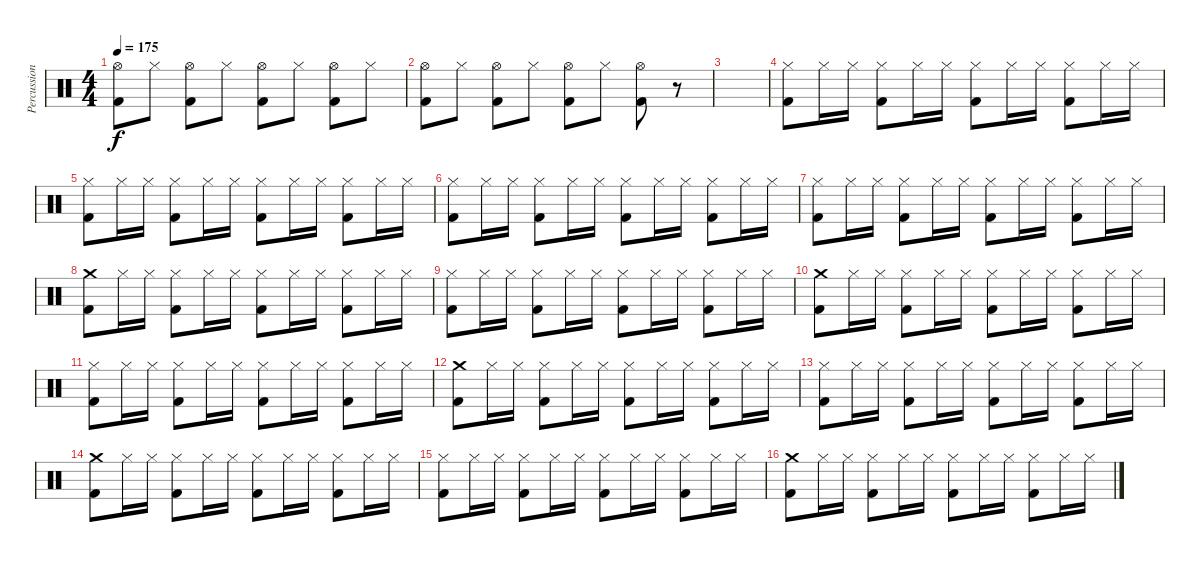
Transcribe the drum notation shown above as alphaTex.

\track ("Percussions" "Percussion") {instrument percussion}
\staff {score}
\articulation defaults
\ts (4 4)
\tempo 175
\clef neutral
\ks c
("Hi-Hat (open)" "Kick (hit) 2").8{dy f} "Hi-Hat (closed)".8 ("Hi-Hat (open)" "Kick (hit) 2").8 "Hi-Hat (closed)".8 ("Hi-Hat (open)" "Kick (hit) 2").8 "Hi-Hat (closed)".8 ("Hi-Hat (open)" "Kick (hit) 2").8 "Hi-Hat (closed)".8 |
("Hi-Hat (open)" "Kick (hit) 2").8 "Hi-Hat (closed)".8 ("Hi-Hat (open)" "Kick (hit) 2").8 "Hi-Hat (closed)".8 ("Hi-Hat (open)" "Kick (hit) 2").8 "Hi-Hat (closed)".8 ("Hi-Hat (open)" "Kick (hit) 2").8 r.8 |
|
("Hi-Hat (closed)" "Kick (hit) 2").8 "Hi-Hat (closed)".16 "Hi-Hat (closed)".16 ("Hi-Hat (closed)" "Kick (hit) 2").8 "Hi-Hat (closed)".16 "Hi-Hat (closed)".16 ("Hi-Hat (closed)" "Kick (hit) 2").8 "Hi-Hat (closed)".16 "Hi-Hat (closed)".16 ("Hi-Hat (closed)" "Kick (hit) 2").8 "Hi-Hat (closed)".16 "Hi-Hat (closed)".16 |
("Hi-Hat (closed)" "Kick (hit) 2").8 "Hi-Hat (closed)".16 "Hi-Hat (closed)".16 ("Hi-Hat (closed)" "Kick (hit) 2").8 "Hi-Hat (closed)".16 "Hi-Hat (closed)".16 ("Hi-Hat (closed)" "Kick (hit) 2").8 "Hi-Hat (closed)".16 "Hi-Hat (closed)".16 ("Hi-Hat (closed)" "Kick (hit) 2").8 "Hi-Hat (closed)".16 "Hi-Hat (closed)".16 |
("Hi-Hat (closed)" "Kick (hit) 2").8 "Hi-Hat (closed)".16 "Hi-Hat (closed)".16 ("Hi-Hat (closed)" "Kick (hit) 2").8 "Hi-Hat (closed)".16 "Hi-Hat (closed)".16 ("Hi-Hat (closed)" "Kick (hit) 2").8 "Hi-Hat (closed)".16 "Hi-Hat (closed)".16 ("Hi-Hat (closed)" "Kick (hit) 2").8 "Hi-Hat (closed)".16 "Hi-Hat (closed)".16 |
("Hi-Hat (closed)" "Kick (hit) 2").8 "Hi-Hat (closed)".16 "Hi-Hat (closed)".16 ("Hi-Hat (closed)" "Kick (hit) 2").8 "Hi-Hat (closed)".16 "Hi-Hat (closed)".16 ("Hi-Hat (closed)" "Kick (hit) 2").8 "Hi-Hat (closed)".16 "Hi-Hat (closed)".16 ("Hi-Hat (closed)" "Kick (hit) 2").8 "Hi-Hat (closed)".16 "Hi-Hat (closed)".16 |
("Crash medium (hit)" "Kick (hit) 2").8 "Hi-Hat (closed)".16 "Hi-Hat (closed)".16 ("Hi-Hat (closed)" "Kick (hit) 2").8 "Hi-Hat (closed)".16 "Hi-Hat (closed)".16 ("Hi-Hat (closed)" "Kick (hit) 2").8 "Hi-Hat (closed)".16 "Hi-Hat (closed)".16 ("Hi-Hat (closed)" "Kick (hit) 2").8 "Hi-Hat (closed)".16 "Hi-Hat (closed)".16 |
("Hi-Hat (closed)" "Kick (hit) 2").8 "Hi-Hat (closed)".16 "Hi-Hat (closed)".16 ("Hi-Hat (closed)" "Kick (hit) 2").8 "Hi-Hat (closed)".16 "Hi-Hat (closed)".16 ("Hi-Hat (closed)" "Kick (hit) 2").8 "Hi-Hat (closed)".16 "Hi-Hat (closed)".16 ("Hi-Hat (closed)" "Kick (hit) 2").8 "Hi-Hat (closed)".16 "Hi-Hat (closed)".16 |
("Crash medium (hit)" "Kick (hit) 2").8 "Hi-Hat (closed)".16 "Hi-Hat (closed)".16 ("Hi-Hat (closed)" "Kick (hit) 2").8 "Hi-Hat (closed)".16 "Hi-Hat (closed)".16 ("Hi-Hat (closed)" "Kick (hit) 2").8 "Hi-Hat (closed)".16 "Hi-Hat (closed)".16 ("Hi-Hat (closed)" "Kick (hit) 2").8 "Hi-Hat (closed)".16 "Hi-Hat (closed)".16 |
("Hi-Hat (closed)" "Kick (hit) 2").8 "Hi-Hat (closed)".16 "Hi-Hat (closed)".16 ("Hi-Hat (closed)" "Kick (hit) 2").8 "Hi-Hat (closed)".16 "Hi-Hat (closed)".16 ("Hi-Hat (closed)" "Kick (hit) 2").8 "Hi-Hat (closed)".16 "Hi-Hat (closed)".16 ("Hi-Hat (closed)" "Kick (hit) 2").8 "Hi-Hat (closed)".16 "Hi-Hat (closed)".16 |
("Crash medium (hit)" "Kick (hit) 2").8 "Hi-Hat (closed)".16 "Hi-Hat (closed)".16 ("Hi-Hat (closed)" "Kick (hit) 2").8 "Hi-Hat (closed)".16 "Hi-Hat (closed)".16 ("Hi-Hat (closed)" "Kick (hit) 2").8 "Hi-Hat (closed)".16 "Hi-Hat (closed)".16 ("Hi-Hat (closed)" "Kick (hit) 2").8 "Hi-Hat (closed)".16 "Hi-Hat (closed)".16 |
("Hi-Hat (closed)" "Kick (hit) 2").8 "Hi-Hat (closed)".16 "Hi-Hat (closed)".16 ("Hi-Hat (closed)" "Kick (hit) 2").8 "Hi-Hat (closed)".16 "Hi-Hat (closed)".16 ("Hi-Hat (closed)" "Kick (hit) 2").8 "Hi-Hat (closed)".16 "Hi-Hat (closed)".16 ("Hi-Hat (closed)" "Kick (hit) 2").8 "Hi-Hat (closed)".16 "Hi-Hat (closed)".16 |
("Crash medium (hit)" "Kick (hit) 2").8 "Hi-Hat (closed)".16 "Hi-Hat (closed)".16 ("Hi-Hat (closed)" "Kick (hit) 2").8 "Hi-Hat (closed)".16 "Hi-Hat (closed)".16 ("Hi-Hat (closed)" "Kick (hit) 2").8 "Hi-Hat (closed)".16 "Hi-Hat (closed)".16 ("Hi-Hat (closed)" "Kick (hit) 2").8 "Hi-Hat (closed)".16 "Hi-Hat (closed)".16 |
("Hi-Hat (closed)" "Kick (hit) 2").8 "Hi-Hat (closed)".16 "Hi-Hat (closed)".16 ("Hi-Hat (closed)" "Kick (hit) 2").8 "Hi-Hat (closed)".16 "Hi-Hat (closed)".16 ("Hi-Hat (closed)" "Kick (hit) 2").8 "Hi-Hat (closed)".16 "Hi-Hat (closed)".16 ("Hi-Hat (closed)" "Kick (hit) 2").8 "Hi-Hat (closed)".16 "Hi-Hat (closed)".16 |
("Crash medium (hit)" "Kick (hit) 2").8 "Hi-Hat (closed)".16 "Hi-Hat (closed)".16 ("Hi-Hat (closed)" "Kick (hit) 2").8 "Hi-Hat (closed)".16 "Hi-Hat (closed)".16 ("Hi-Hat (closed)" "Kick (hit) 2").8 "Hi-Hat (closed)".16 "Hi-Hat (closed)".16 ("Hi-Hat (closed)" "Kick (hit) 2").8 "Hi-Hat (closed)".16 "Hi-Hat (closed)".16
